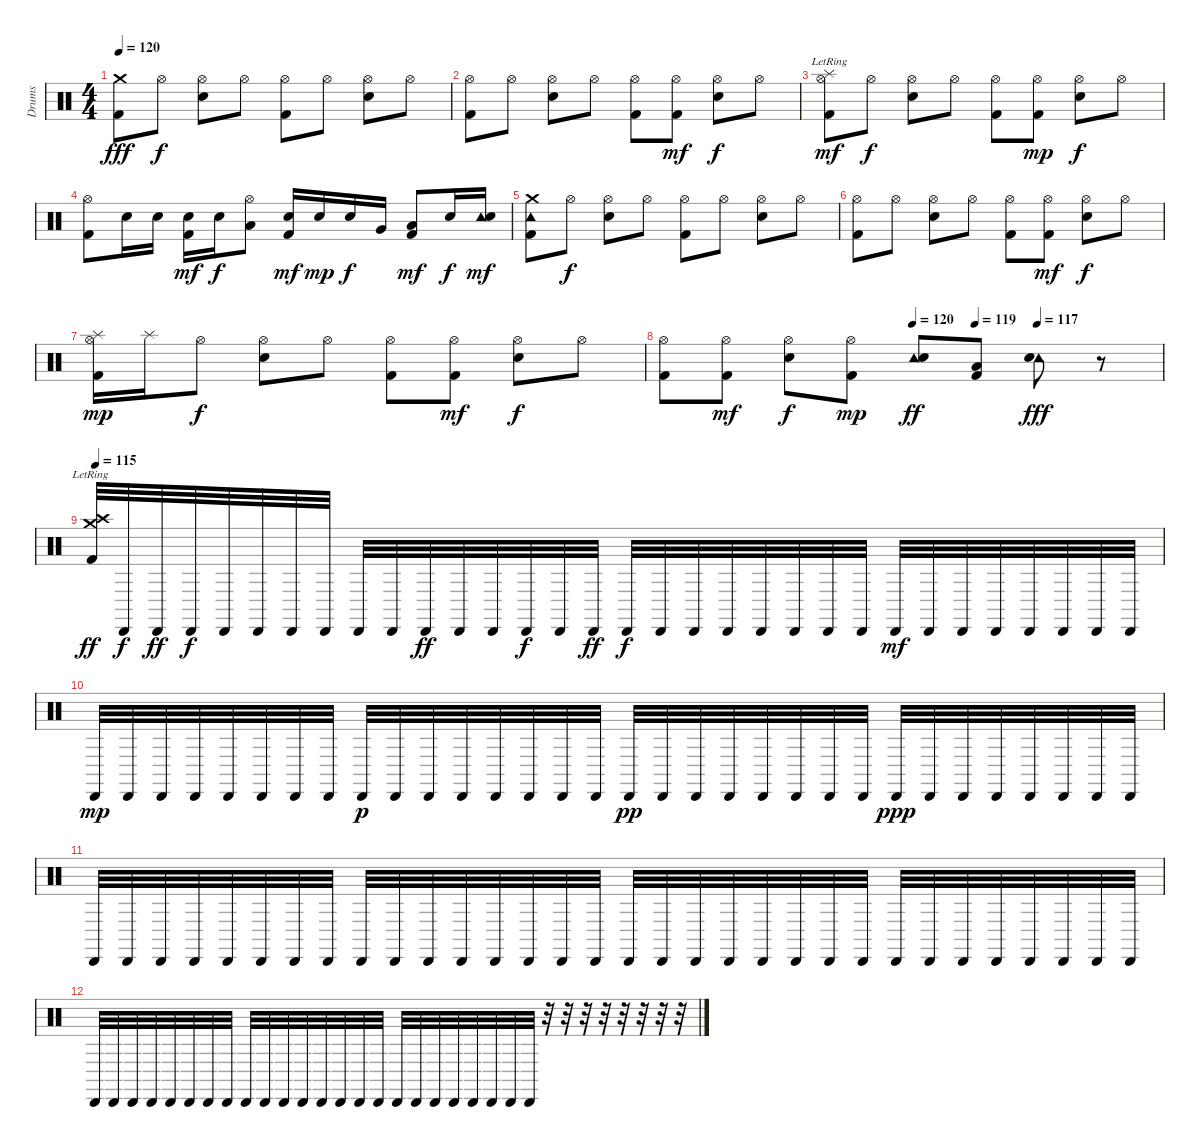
\track ("Drums" "Drums") {instrument percussion}
\staff {score}
\articulation defaults
\ts (4 4)
\tempo 120
\clef neutral
\ks c
("Crash medium (hit)" "Kick (hit) 2").8{dy fff} "Hi-Hat (open)".8{dy f} ("Hi-Hat (open)" "Electric Snare (hit)").8 "Hi-Hat (open)".8 ("Hi-Hat (open)" "Kick (hit) 2").8 "Hi-Hat (open)".8 ("Hi-Hat (open)" "Electric Snare (hit)").8 "Hi-Hat (open)".8 |
("Hi-Hat (open)" "Kick (hit) 2").8 "Hi-Hat (open)".8 ("Hi-Hat (open)" "Electric Snare (hit)").8 "Hi-Hat (open)".8 ("Hi-Hat (open)" "Kick (hit) 2").8 ("Hi-Hat (open)" "Kick (hit) 2").8{dy mf} ("Hi-Hat (open)" "Electric Snare (hit)").8{dy f} "Hi-Hat (open)".8 |
("Hi-Hat (open)" "Splash (hit)"{lr} "Kick (hit) 2").8{dy mf} "Hi-Hat (open)".8{dy f} ("Hi-Hat (open)" "Electric Snare (hit)").8 "Hi-Hat (open)".8 ("Hi-Hat (open)" "Kick (hit) 2").8 ("Hi-Hat (open)" "Kick (hit) 2").8{dy mp} ("Hi-Hat (open)" "Electric Snare (hit)").8{dy f} "Hi-Hat (open)".8 |
("Hi-Hat (open)" "Kick (hit) 2").8 "Electric Snare (hit)".16 "Electric Snare (hit)".16 ("Electric Snare (hit)" "Kick (hit) 2").16{dy mf} "Electric Snare (hit)".16{dy f} ("Hi-Hat (open)" "Low Tom (hit)").8 ("Electric Snare (hit)" "Kick (hit) 2").16{dy mf} "Electric Snare (hit)".16{dy mp} "Electric Snare (hit)".16{dy f} "Very Low Tom (hit)".16 ("Low Tom (hit)" "Kick (hit) 2").8{dy mf} "Electric Snare (hit)".16{dy f} ("Tambourine (hit)" "Electric Snare (hit)").16{dy mf} |
("Crash medium (hit)" "Tambourine (hit)" "Kick (hit) 2").8 "Hi-Hat (open)".8{dy f} ("Hi-Hat (open)" "Electric Snare (hit)").8 "Hi-Hat (open)".8 ("Hi-Hat (open)" "Kick (hit) 2").8 "Hi-Hat (open)".8 ("Hi-Hat (open)" "Electric Snare (hit)").8 "Hi-Hat (open)".8 |
("Hi-Hat (open)" "Kick (hit) 2").8 "Hi-Hat (open)".8 ("Hi-Hat (open)" "Electric Snare (hit)").8 "Hi-Hat (open)".8 ("Hi-Hat (open)" "Kick (hit) 2").8 ("Hi-Hat (open)" "Kick (hit) 2").8{dy mf} ("Hi-Hat (open)" "Electric Snare (hit)").8{dy f} "Hi-Hat (open)".8 |
("Hi-Hat (open)" "Splash (hit)" "Kick (hit) 2").16{dy mp} "Splash (hit)".16 "Hi-Hat (open)".8{dy f} ("Hi-Hat (open)" "Electric Snare (hit)").8 "Hi-Hat (open)".8 ("Hi-Hat (open)" "Kick (hit) 2").8 ("Hi-Hat (open)" "Kick (hit) 2").8{dy mf} ("Hi-Hat (open)" "Electric Snare (hit)").8{dy f} "Hi-Hat (open)".8 |
\tempo (120 0.5)
\tempo (119 0.625)
\tempo (117 0.75)
("Hi-Hat (open)" "Kick (hit) 2").8 ("Hi-Hat (open)" "Kick (hit) 2").8{dy mf} ("Hi-Hat (open)" "Electric Snare (hit)").8{dy f} ("Hi-Hat (open)" "Kick (hit) 2").8{dy mp} ("Tambourine (hit)" "Electric Snare (hit)").8{dy ff} ("Low Floor Tom (hit)" "Kick (hit) 2").8 ("Tambourine (hit)" "Electric Snare (hit)").8{dy fff} r.8 |
\tempo 115
("Crash high (hit)"{lr} "Crash medium (hit)"{lr} "Kick (hit) 2").32{dy ff} "Cabasa (hit)".32{dy f} "Cabasa (hit)".32{dy ff} "Cabasa (hit)".32{dy f} "Cabasa (hit)".32 "Cabasa (hit)".32 "Cabasa (hit)".32 "Cabasa (hit)".32 "Cabasa (hit)".32 "Cabasa (hit)".32 "Cabasa (hit)".32{dy ff} "Cabasa (hit)".32 "Cabasa (hit)".32 "Cabasa (hit)".32{dy f} "Cabasa (hit)".32 "Cabasa (hit)".32{dy ff} "Cabasa (hit)".32{dy f} "Cabasa (hit)".32 "Cabasa (hit)".32 "Cabasa (hit)".32 "Cabasa (hit)".32 "Cabasa (hit)".32 "Cabasa (hit)".32 "Cabasa (hit)".32 "Cabasa (hit)".32{dy mf} "Cabasa (hit)".32 "Cabasa (hit)".32 "Cabasa (hit)".32 "Cabasa (hit)".32 "Cabasa (hit)".32 "Cabasa (hit)".32 "Cabasa (hit)".32 |
"Cabasa (hit)".32{dy mp} "Cabasa (hit)".32 "Cabasa (hit)".32 "Cabasa (hit)".32 "Cabasa (hit)".32 "Cabasa (hit)".32 "Cabasa (hit)".32 "Cabasa (hit)".32 "Cabasa (hit)".32{dy p} "Cabasa (hit)".32 "Cabasa (hit)".32 "Cabasa (hit)".32 "Cabasa (hit)".32 "Cabasa (hit)".32 "Cabasa (hit)".32 "Cabasa (hit)".32 "Cabasa (hit)".32{dy pp} "Cabasa (hit)".32 "Cabasa (hit)".32 "Cabasa (hit)".32 "Cabasa (hit)".32 "Cabasa (hit)".32 "Cabasa (hit)".32 "Cabasa (hit)".32 "Cabasa (hit)".32{dy ppp} "Cabasa (hit)".32 "Cabasa (hit)".32 "Cabasa (hit)".32 "Cabasa (hit)".32 "Cabasa (hit)".32 "Cabasa (hit)".32 "Cabasa (hit)".32 |
"Cabasa (hit)".32 "Cabasa (hit)".32 "Cabasa (hit)".32 "Cabasa (hit)".32 "Cabasa (hit)".32 "Cabasa (hit)".32 "Cabasa (hit)".32 "Cabasa (hit)".32 "Cabasa (hit)".32 "Cabasa (hit)".32 "Cabasa (hit)".32 "Cabasa (hit)".32 "Cabasa (hit)".32 "Cabasa (hit)".32 "Cabasa (hit)".32 "Cabasa (hit)".32 "Cabasa (hit)".32 "Cabasa (hit)".32 "Cabasa (hit)".32 "Cabasa (hit)".32 "Cabasa (hit)".32 "Cabasa (hit)".32 "Cabasa (hit)".32 "Cabasa (hit)".32 "Cabasa (hit)".32 "Cabasa (hit)".32 "Cabasa (hit)".32 "Cabasa (hit)".32 "Cabasa (hit)".32 "Cabasa (hit)".32 "Cabasa (hit)".32 "Cabasa (hit)".32 |
"Cabasa (hit)".32 "Cabasa (hit)".32 "Cabasa (hit)".32 "Cabasa (hit)".32 "Cabasa (hit)".32 "Cabasa (hit)".32 "Cabasa (hit)".32 "Cabasa (hit)".32 "Cabasa (hit)".32 "Cabasa (hit)".32 "Cabasa (hit)".32 "Cabasa (hit)".32 "Cabasa (hit)".32 "Cabasa (hit)".32 "Cabasa (hit)".32 "Cabasa (hit)".32 "Cabasa (hit)".32 "Cabasa (hit)".32 "Cabasa (hit)".32 "Cabasa (hit)".32 "Cabasa (hit)".32 "Cabasa (hit)".32 "Cabasa (hit)".32 "Cabasa (hit)".32 r.32 r.32 r.32 r.32 r.32 r.32 r.32 r.32
